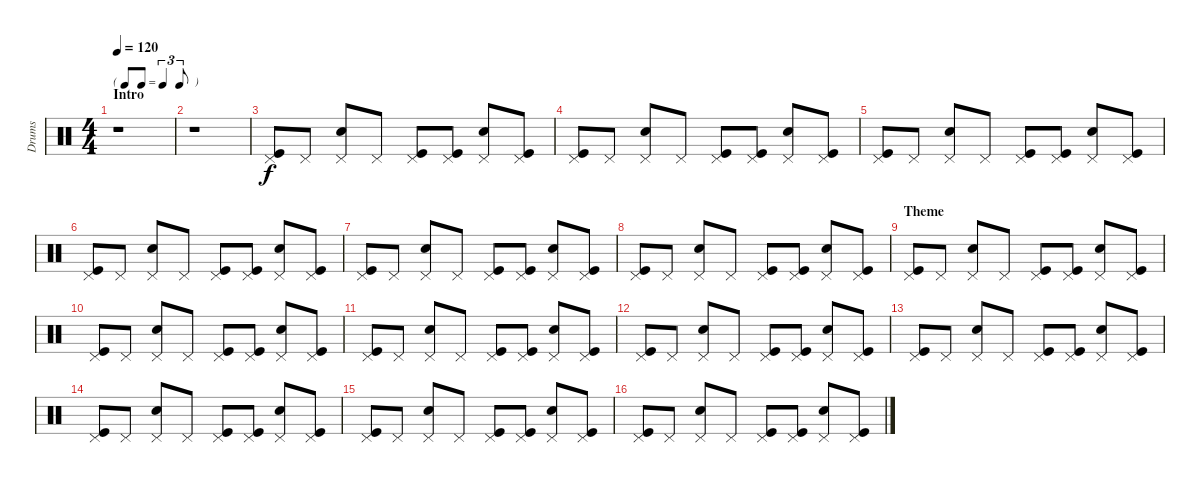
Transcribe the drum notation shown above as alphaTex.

\track ("Drums" "Drums") {instrument percussion}
\staff {score}
\articulation defaults
\ts (4 4)
\tf triplet8th
\section ("" "Intro")
\tempo 120
\clef neutral
\ks c
r.1{dy f} |
r.1 |
("Pedal Hi-Hat (hit)" "Kick (hit)").8 "Pedal Hi-Hat (hit)".8 ("Pedal Hi-Hat (hit)" "Snare (hit) 2").8 "Pedal Hi-Hat (hit)".8 ("Pedal Hi-Hat (hit)" "Kick (hit)").8 ("Pedal Hi-Hat (hit)" "Kick (hit)").8 ("Pedal Hi-Hat (hit)" "Snare (hit) 2").8 ("Pedal Hi-Hat (hit)" "Kick (hit)").8 |
("Pedal Hi-Hat (hit)" "Kick (hit)").8 "Pedal Hi-Hat (hit)".8 ("Pedal Hi-Hat (hit)" "Snare (hit) 2").8 "Pedal Hi-Hat (hit)".8 ("Pedal Hi-Hat (hit)" "Kick (hit)").8 ("Pedal Hi-Hat (hit)" "Kick (hit)").8 ("Pedal Hi-Hat (hit)" "Snare (hit) 2").8 ("Pedal Hi-Hat (hit)" "Kick (hit)").8 |
("Pedal Hi-Hat (hit)" "Kick (hit)").8 "Pedal Hi-Hat (hit)".8 ("Pedal Hi-Hat (hit)" "Snare (hit) 2").8 "Pedal Hi-Hat (hit)".8 ("Pedal Hi-Hat (hit)" "Kick (hit)").8 ("Pedal Hi-Hat (hit)" "Kick (hit)").8 ("Pedal Hi-Hat (hit)" "Snare (hit) 2").8 ("Pedal Hi-Hat (hit)" "Kick (hit)").8 |
("Pedal Hi-Hat (hit)" "Kick (hit)").8 "Pedal Hi-Hat (hit)".8 ("Pedal Hi-Hat (hit)" "Snare (hit) 2").8 "Pedal Hi-Hat (hit)".8 ("Pedal Hi-Hat (hit)" "Kick (hit)").8 ("Pedal Hi-Hat (hit)" "Kick (hit)").8 ("Pedal Hi-Hat (hit)" "Snare (hit) 2").8 ("Pedal Hi-Hat (hit)" "Kick (hit)").8 |
("Pedal Hi-Hat (hit)" "Kick (hit)").8 "Pedal Hi-Hat (hit)".8 ("Pedal Hi-Hat (hit)" "Snare (hit) 2").8 "Pedal Hi-Hat (hit)".8 ("Pedal Hi-Hat (hit)" "Kick (hit)").8 ("Pedal Hi-Hat (hit)" "Kick (hit)").8 ("Pedal Hi-Hat (hit)" "Snare (hit) 2").8 ("Pedal Hi-Hat (hit)" "Kick (hit)").8 |
("Pedal Hi-Hat (hit)" "Kick (hit)").8 "Pedal Hi-Hat (hit)".8 ("Pedal Hi-Hat (hit)" "Snare (hit) 2").8 "Pedal Hi-Hat (hit)".8 ("Pedal Hi-Hat (hit)" "Kick (hit)").8 ("Pedal Hi-Hat (hit)" "Kick (hit)").8 ("Pedal Hi-Hat (hit)" "Snare (hit) 2").8 ("Pedal Hi-Hat (hit)" "Kick (hit)").8 |
\section ("" "Theme")
("Pedal Hi-Hat (hit)" "Kick (hit)").8 "Pedal Hi-Hat (hit)".8 ("Pedal Hi-Hat (hit)" "Snare (hit) 2").8 "Pedal Hi-Hat (hit)".8 ("Pedal Hi-Hat (hit)" "Kick (hit)").8 ("Pedal Hi-Hat (hit)" "Kick (hit)").8 ("Pedal Hi-Hat (hit)" "Snare (hit) 2").8 ("Pedal Hi-Hat (hit)" "Kick (hit)").8 |
("Pedal Hi-Hat (hit)" "Kick (hit)").8 "Pedal Hi-Hat (hit)".8 ("Pedal Hi-Hat (hit)" "Snare (hit) 2").8 "Pedal Hi-Hat (hit)".8 ("Pedal Hi-Hat (hit)" "Kick (hit)").8 ("Pedal Hi-Hat (hit)" "Kick (hit)").8 ("Pedal Hi-Hat (hit)" "Snare (hit) 2").8 ("Pedal Hi-Hat (hit)" "Kick (hit)").8 |
("Pedal Hi-Hat (hit)" "Kick (hit)").8 "Pedal Hi-Hat (hit)".8 ("Pedal Hi-Hat (hit)" "Snare (hit) 2").8 "Pedal Hi-Hat (hit)".8 ("Pedal Hi-Hat (hit)" "Kick (hit)").8 ("Pedal Hi-Hat (hit)" "Kick (hit)").8 ("Pedal Hi-Hat (hit)" "Snare (hit) 2").8 ("Pedal Hi-Hat (hit)" "Kick (hit)").8 |
("Pedal Hi-Hat (hit)" "Kick (hit)").8 "Pedal Hi-Hat (hit)".8 ("Pedal Hi-Hat (hit)" "Snare (hit) 2").8 "Pedal Hi-Hat (hit)".8 ("Pedal Hi-Hat (hit)" "Kick (hit)").8 ("Pedal Hi-Hat (hit)" "Kick (hit)").8 ("Pedal Hi-Hat (hit)" "Snare (hit) 2").8 ("Pedal Hi-Hat (hit)" "Kick (hit)").8 |
("Pedal Hi-Hat (hit)" "Kick (hit)").8 "Pedal Hi-Hat (hit)".8 ("Pedal Hi-Hat (hit)" "Snare (hit) 2").8 "Pedal Hi-Hat (hit)".8 ("Pedal Hi-Hat (hit)" "Kick (hit)").8 ("Pedal Hi-Hat (hit)" "Kick (hit)").8 ("Pedal Hi-Hat (hit)" "Snare (hit) 2").8 ("Pedal Hi-Hat (hit)" "Kick (hit)").8 |
("Pedal Hi-Hat (hit)" "Kick (hit)").8 "Pedal Hi-Hat (hit)".8 ("Pedal Hi-Hat (hit)" "Snare (hit) 2").8 "Pedal Hi-Hat (hit)".8 ("Pedal Hi-Hat (hit)" "Kick (hit)").8 ("Pedal Hi-Hat (hit)" "Kick (hit)").8 ("Pedal Hi-Hat (hit)" "Snare (hit) 2").8 ("Pedal Hi-Hat (hit)" "Kick (hit)").8 |
("Pedal Hi-Hat (hit)" "Kick (hit)").8 "Pedal Hi-Hat (hit)".8 ("Pedal Hi-Hat (hit)" "Snare (hit) 2").8 "Pedal Hi-Hat (hit)".8 ("Pedal Hi-Hat (hit)" "Kick (hit)").8 ("Pedal Hi-Hat (hit)" "Kick (hit)").8 ("Pedal Hi-Hat (hit)" "Snare (hit) 2").8 ("Pedal Hi-Hat (hit)" "Kick (hit)").8 |
("Pedal Hi-Hat (hit)" "Kick (hit)").8 "Pedal Hi-Hat (hit)".8 ("Pedal Hi-Hat (hit)" "Snare (hit) 2").8 "Pedal Hi-Hat (hit)".8 ("Pedal Hi-Hat (hit)" "Kick (hit)").8 ("Pedal Hi-Hat (hit)" "Kick (hit)").8 ("Pedal Hi-Hat (hit)" "Snare (hit) 2").8 ("Pedal Hi-Hat (hit)" "Kick (hit)").8
